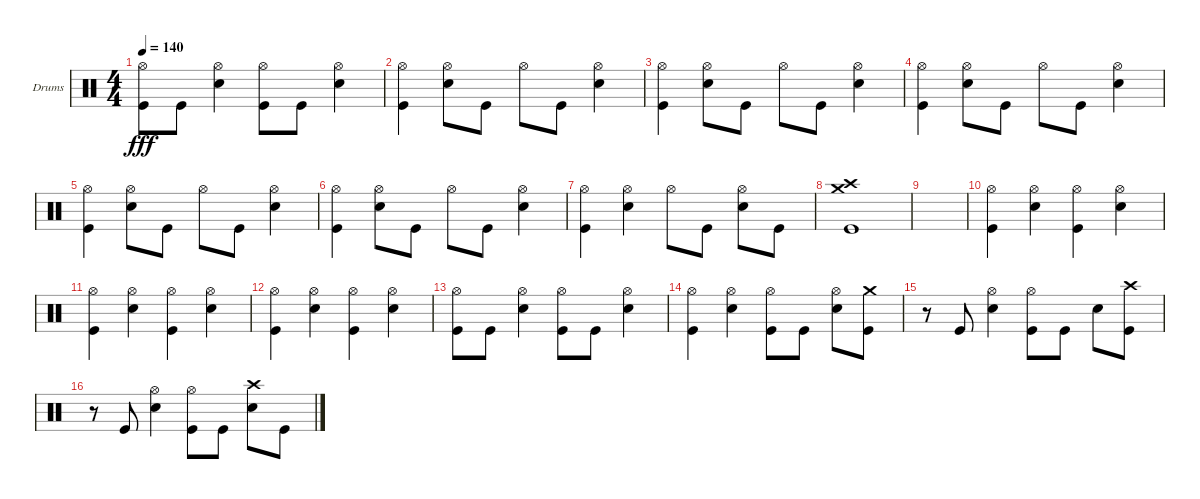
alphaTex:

\bracketExtendMode groupsimilarinstruments
\firstSystemTrackNameOrientation horizontal
\otherSystemsTrackNameOrientation horizontal
\track ("Drumkit" "Drums") {instrument percussion}
\staff {score}
\articulation defaults
\ts (4 4)
\tempo 140
\clef neutral
\ks c
("Kick (hit)" "Hi-Hat (open)").8{dy fff} "Kick (hit)".8 ("Snare (hit) 2" "Hi-Hat (open)").4 ("Kick (hit)" "Hi-Hat (open)").8 "Kick (hit)".8 ("Snare (hit) 2" "Hi-Hat (open)").4 |
("Kick (hit)" "Hi-Hat (open)").4 ("Snare (hit) 2" "Hi-Hat (open)").8 "Kick (hit)".8 "Hi-Hat (open)".8 "Kick (hit)".8 ("Snare (hit) 2" "Hi-Hat (open)").4 |
("Kick (hit)" "Hi-Hat (open)").4 ("Snare (hit) 2" "Hi-Hat (open)").8 "Kick (hit)".8 "Hi-Hat (open)".8 "Kick (hit)".8 ("Snare (hit) 2" "Hi-Hat (open)").4 |
("Kick (hit)" "Hi-Hat (open)").4 ("Snare (hit) 2" "Hi-Hat (open)").8 "Kick (hit)".8 "Hi-Hat (open)".8 "Kick (hit)".8 ("Snare (hit) 2" "Hi-Hat (open)").4 |
("Kick (hit)" "Hi-Hat (open)").4 ("Snare (hit) 2" "Hi-Hat (open)").8 "Kick (hit)".8 "Hi-Hat (open)".8 "Kick (hit)".8 ("Snare (hit) 2" "Hi-Hat (open)").4 |
("Kick (hit)" "Hi-Hat (open)").4 ("Snare (hit) 2" "Hi-Hat (open)").8 "Kick (hit)".8 "Hi-Hat (open)".8 "Kick (hit)".8 ("Snare (hit) 2" "Hi-Hat (open)").4 |
("Kick (hit)" "Hi-Hat (open)").4 ("Snare (hit) 2" "Hi-Hat (open)").4 "Hi-Hat (open)".8 "Kick (hit)".8 ("Snare (hit) 2" "Hi-Hat (open)").8 "Kick (hit)".8 |
("Kick (hit)" "Crash medium (hit)" "Crash high (hit)").1 |
|
("Kick (hit)" "Hi-Hat (open)").4 ("Snare (hit) 2" "Hi-Hat (open)").4 ("Kick (hit)" "Hi-Hat (open)").4 ("Snare (hit) 2" "Hi-Hat (open)").4 |
("Kick (hit)" "Hi-Hat (open)").4 ("Snare (hit) 2" "Hi-Hat (open)").4 ("Kick (hit)" "Hi-Hat (open)").4 ("Snare (hit) 2" "Hi-Hat (open)").4 |
("Kick (hit)" "Hi-Hat (open)").4 ("Snare (hit) 2" "Hi-Hat (open)").4 ("Kick (hit)" "Hi-Hat (open)").4 ("Snare (hit) 2" "Hi-Hat (open)").4 |
("Kick (hit)" "Hi-Hat (open)").8 "Kick (hit)".8 ("Snare (hit) 2" "Hi-Hat (open)").4 ("Kick (hit)" "Hi-Hat (open)").8 "Kick (hit)".8 ("Snare (hit) 2" "Hi-Hat (open)").4 |
("Kick (hit)" "Hi-Hat (open)").4 ("Snare (hit) 2" "Hi-Hat (open)").4 ("Kick (hit)" "Hi-Hat (open)").8 "Kick (hit)".8 ("Snare (hit) 2" "Hi-Hat (open)").8 ("Kick (hit)" "Crash medium (hit)").8 |
r.8 "Kick (hit)".8 ("Snare (hit) 2" "Hi-Hat (open)").4 ("Kick (hit)" "Hi-Hat (open)").8 "Kick (hit)".8 "Snare (hit) 2".8 ("Kick (hit)" "Crash high (hit)").8 |
r.8 "Kick (hit)".8 ("Snare (hit) 2" "Hi-Hat (open)").4 ("Kick (hit)" "Hi-Hat (open)").8 "Kick (hit)".8 ("Snare (hit) 2" "Crash high (hit)").8 "Kick (hit)".8
